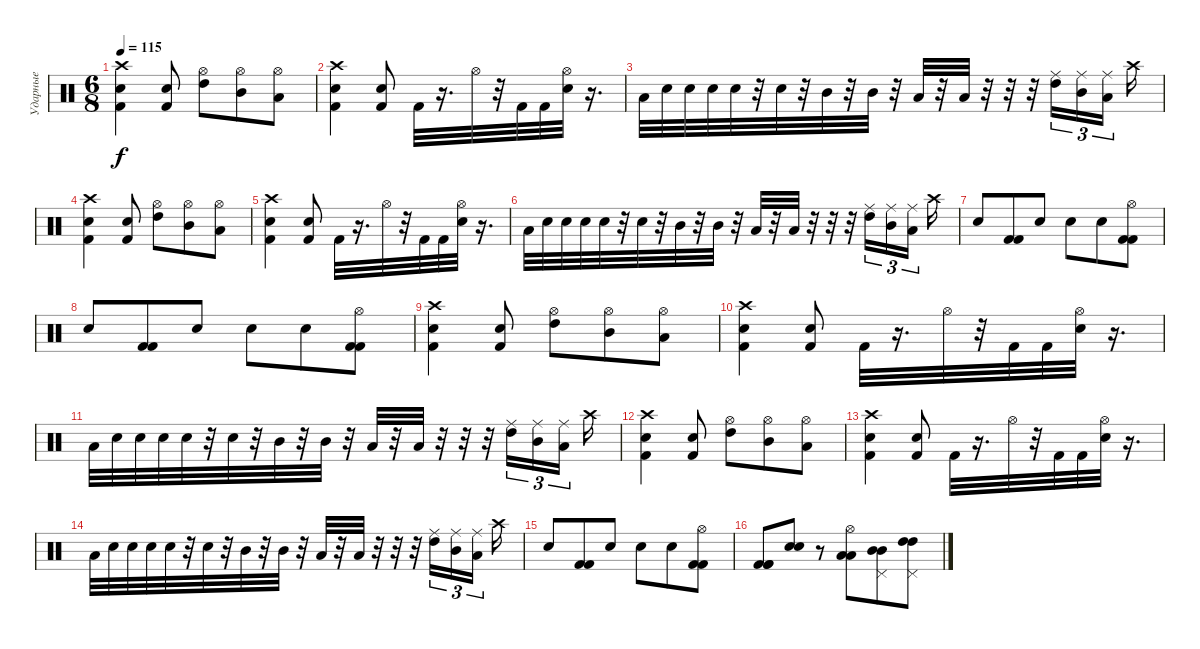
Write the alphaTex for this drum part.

\track ("Ударные" "Ударные") {instrument percussion}
\staff {score}
\articulation defaults
\ts (6 8)
\tempo 115
\clef neutral
\ks c
("Crash high (hit)" "Kick (hit) 2" "Electric Snare (hit)").4{dy f} ("Kick (hit) 2" "Electric Snare (hit)").8 ("High Tom (hit)" "Hi-Hat (open)").8 ("Mid Tom (hit)" "Hi-Hat (open)").8 ("Low Tom (hit)" "Hi-Hat (open)").8 |
("Crash high (hit)" "Kick (hit) 2" "Electric Snare (hit)").4 ("Kick (hit) 2" "Electric Snare (hit)").8 "Kick (hit) 2".32 r.16{d} "Hi-Hat (open)".32 r.32 "Kick (hit) 2".32 "Kick (hit) 2".32 ("Snare (hit) 2" "Hi-Hat (open)").32 r.16{d} |
"Low Tom (hit)".32 "Snare (hit) 2".32 "Snare (hit) 2".32 "Snare (hit) 2".32 "Snare (hit) 2".32 r.32 "Snare (hit) 2".32 r.32 "Mid Tom (hit)".32 r.32 "Mid Tom (hit)".32 r.32 "Low Tom (hit)".32 r.32 "Low Tom (hit)".32 r.32 r.32 r.32 ("High Tom (hit)" "Ride (middle)").16{tu (3 2)} ("Mid Tom (hit)" "Ride (middle)").16{tu (3 2)} ("Low Tom (hit)" "Ride (middle)").16{tu (3 2)} "Crash high (hit)".16 |
("Crash high (hit)" "Kick (hit) 2" "Electric Snare (hit)").4 ("Kick (hit) 2" "Electric Snare (hit)").8 ("High Tom (hit)" "Hi-Hat (open)").8 ("Mid Tom (hit)" "Hi-Hat (open)").8 ("Low Tom (hit)" "Hi-Hat (open)").8 |
("Crash high (hit)" "Kick (hit) 2" "Electric Snare (hit)").4 ("Kick (hit) 2" "Electric Snare (hit)").8 "Kick (hit) 2".32 r.16{d} "Hi-Hat (open)".32 r.32 "Kick (hit) 2".32 "Kick (hit) 2".32 ("Snare (hit) 2" "Hi-Hat (open)").32 r.16{d} |
"Low Tom (hit)".32 "Snare (hit) 2".32 "Snare (hit) 2".32 "Snare (hit) 2".32 "Snare (hit) 2".32 r.32 "Snare (hit) 2".32 r.32 "Mid Tom (hit)".32 r.32 "Mid Tom (hit)".32 r.32 "Low Tom (hit)".32 r.32 "Low Tom (hit)".32 r.32 r.32 r.32 ("High Tom (hit)" "Ride (middle)").16{tu (3 2)} ("Mid Tom (hit)" "Ride (middle)").16{tu (3 2)} ("Low Tom (hit)" "Ride (middle)").16{tu (3 2)} "Crash high (hit)".16 |
"Electric Snare (hit)".8 ("Kick (hit) 2" "Kick (hit) 2").8 "Electric Snare (hit)".8 "Electric Snare (hit)".8 "Electric Snare (hit)".8 ("Hi-Hat (open)" "Kick (hit) 2" "Kick (hit) 2").8 |
"Electric Snare (hit)".8 ("Kick (hit) 2" "Kick (hit) 2").8 "Electric Snare (hit)".8 "Electric Snare (hit)".8 "Electric Snare (hit)".8 ("Hi-Hat (open)" "Kick (hit) 2" "Kick (hit) 2").8 |
("Crash high (hit)" "Kick (hit) 2" "Electric Snare (hit)").4 ("Kick (hit) 2" "Electric Snare (hit)").8 ("High Tom (hit)" "Hi-Hat (open)").8 ("Mid Tom (hit)" "Hi-Hat (open)").8 ("Low Tom (hit)" "Hi-Hat (open)").8 |
("Crash high (hit)" "Kick (hit) 2" "Electric Snare (hit)").4 ("Kick (hit) 2" "Electric Snare (hit)").8 "Kick (hit) 2".32 r.16{d} "Hi-Hat (open)".32 r.32 "Kick (hit) 2".32 "Kick (hit) 2".32 ("Snare (hit) 2" "Hi-Hat (open)").32 r.16{d} |
"Low Tom (hit)".32 "Snare (hit) 2".32 "Snare (hit) 2".32 "Snare (hit) 2".32 "Snare (hit) 2".32 r.32 "Snare (hit) 2".32 r.32 "Mid Tom (hit)".32 r.32 "Mid Tom (hit)".32 r.32 "Low Tom (hit)".32 r.32 "Low Tom (hit)".32 r.32 r.32 r.32 ("High Tom (hit)" "Ride (middle)").16{tu (3 2)} ("Mid Tom (hit)" "Ride (middle)").16{tu (3 2)} ("Low Tom (hit)" "Ride (middle)").16{tu (3 2)} "Crash high (hit)".16 |
("Crash high (hit)" "Kick (hit) 2" "Electric Snare (hit)").4 ("Kick (hit) 2" "Electric Snare (hit)").8 ("High Tom (hit)" "Hi-Hat (open)").8 ("Mid Tom (hit)" "Hi-Hat (open)").8 ("Low Tom (hit)" "Hi-Hat (open)").8 |
("Crash high (hit)" "Kick (hit) 2" "Electric Snare (hit)").4 ("Kick (hit) 2" "Electric Snare (hit)").8 "Kick (hit) 2".32 r.16{d} "Hi-Hat (open)".32 r.32 "Kick (hit) 2".32 "Kick (hit) 2".32 ("Snare (hit) 2" "Hi-Hat (open)").32 r.16{d} |
"Low Tom (hit)".32 "Snare (hit) 2".32 "Snare (hit) 2".32 "Snare (hit) 2".32 "Snare (hit) 2".32 r.32 "Snare (hit) 2".32 r.32 "Mid Tom (hit)".32 r.32 "Mid Tom (hit)".32 r.32 "Low Tom (hit)".32 r.32 "Low Tom (hit)".32 r.32 r.32 r.32 ("High Tom (hit)" "Ride (middle)").16{tu (3 2)} ("Mid Tom (hit)" "Ride (middle)").16{tu (3 2)} ("Low Tom (hit)" "Ride (middle)").16{tu (3 2)} "Crash high (hit)".16 |
"Electric Snare (hit)".8 ("Kick (hit) 2" "Kick (hit) 2").8 "Electric Snare (hit)".8 "Electric Snare (hit)".8 "Electric Snare (hit)".8 ("Hi-Hat (open)" "Kick (hit) 2" "Kick (hit) 2").8 |
("Kick (hit) 2" "Kick (hit) 2" "Kick (hit) 2").8 ("Electric Snare (hit)" "Electric Snare (hit)").8 r.8 ("Low Tom (hit)" "Low Tom (hit)" "Hi-Hat (open)").8 ("Mid Tom (hit)" "Mid Tom (hit)" "Pedal Hi-Hat (hit)").8 ("High Tom (hit)" "High Tom (hit)" "Pedal Hi-Hat (hit)").8
